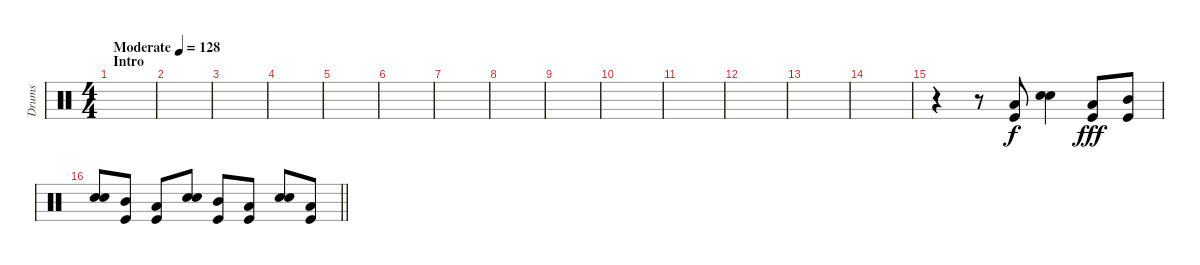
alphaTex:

\track ("Drums" "Drums") {instrument percussion}
\staff {score}
\articulation defaults
\ts (4 4)
\section ("" "Intro")
\tempo (128 "Moderate")
\clef neutral
\ks c
|
|
|
|
|
|
|
|
|
|
|
|
|
|
r.4 r.8 ("Low Tom (hit)" "Kick (hit)").8 ("Snare (hit) 2" "Electric Snare (hit)").4{dy f} ("Low Tom (hit)" "Kick (hit)").8{dy fff} ("Mid Tom (hit)" "Kick (hit)").8 |
\barLineRight lightlight
("Snare (hit) 2" "Electric Snare (hit)").8 ("Mid Tom (hit)" "Kick (hit)").8 ("Low Tom (hit)" "Kick (hit)").8 ("Snare (hit) 2" "Electric Snare (hit)").8 ("Mid Tom (hit)" "Kick (hit)").8 ("Low Tom (hit)" "Kick (hit)").8 ("Snare (hit) 2" "Electric Snare (hit)").8 ("Low Tom (hit)" "Kick (hit)").8
